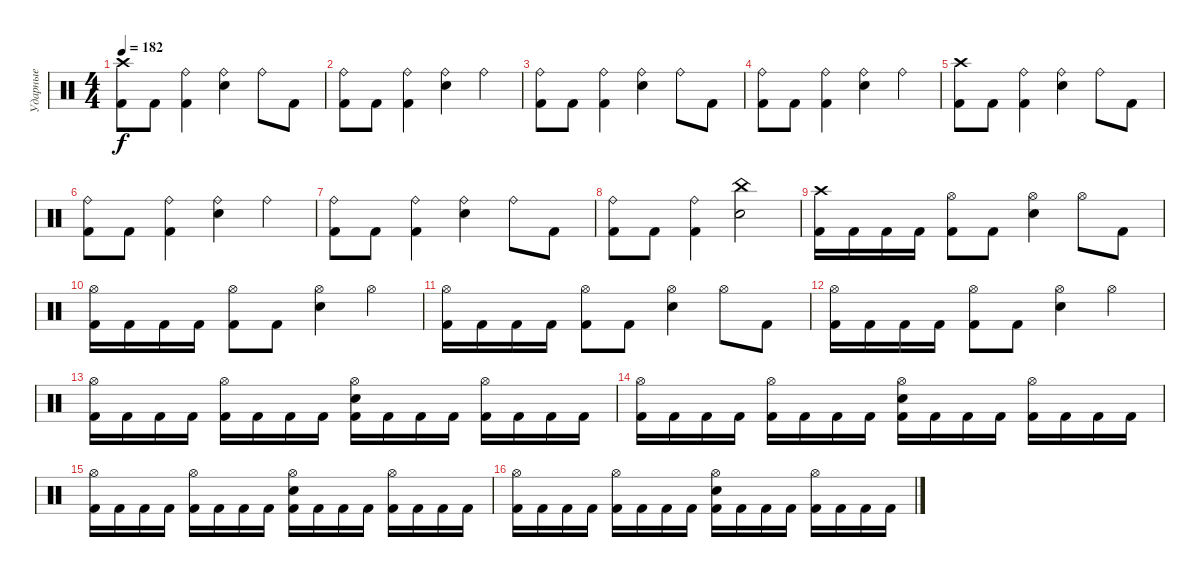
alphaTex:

\track ("Ударные" "Ударные") {instrument percussion}
\staff {score}
\articulation defaults
\ts (4 4)
\tempo 182
\clef neutral
\ks c
("Crash high (hit)" "Kick (hit) 2").8{dy f} "Kick (hit) 2".8 ("Ride (bell)" "Kick (hit) 2").4 ("Ride (bell)" "Electric Snare (hit)").4 "Ride (bell)".8 "Kick (hit) 2".8 |
("Ride (bell)" "Kick (hit) 2").8 "Kick (hit) 2".8 ("Ride (bell)" "Kick (hit) 2").4 ("Ride (bell)" "Electric Snare (hit)").4 "Ride (bell)".4 |
("Ride (bell)" "Kick (hit) 2").8 "Kick (hit) 2".8 ("Ride (bell)" "Kick (hit) 2").4 ("Ride (bell)" "Electric Snare (hit)").4 "Ride (bell)".8 "Kick (hit) 2".8 |
("Ride (bell)" "Kick (hit) 2").8 "Kick (hit) 2".8 ("Ride (bell)" "Kick (hit) 2").4 ("Ride (bell)" "Electric Snare (hit)").4 "Ride (bell)".4 |
("Crash high (hit)" "Kick (hit) 2").8 "Kick (hit) 2".8 ("Ride (bell)" "Kick (hit) 2").4 ("Ride (bell)" "Electric Snare (hit)").4 "Ride (bell)".8 "Kick (hit) 2".8 |
("Ride (bell)" "Kick (hit) 2").8 "Kick (hit) 2".8 ("Ride (bell)" "Kick (hit) 2").4 ("Ride (bell)" "Electric Snare (hit)").4 "Ride (bell)".4 |
("Ride (bell)" "Kick (hit) 2").8 "Kick (hit) 2".8 ("Ride (bell)" "Kick (hit) 2").4 ("Ride (bell)" "Electric Snare (hit)").4 "Ride (bell)".8 "Kick (hit) 2".8 |
("Ride (bell)" "Kick (hit) 2").8 "Kick (hit) 2".8 ("Ride (bell)" "Kick (hit) 2").4 ("China (hit)" "Electric Snare (hit)").2 |
("Crash high (hit)" "Kick (hit) 2").16 "Kick (hit) 2".16 "Kick (hit) 2".16 "Kick (hit) 2".16 ("Hi-Hat (open)" "Kick (hit) 2").8 "Kick (hit) 2".8 ("Hi-Hat (open)" "Electric Snare (hit)").4 "Hi-Hat (open)".8 "Kick (hit) 2".8 |
("Hi-Hat (open)" "Kick (hit) 2").16 "Kick (hit) 2".16 "Kick (hit) 2".16 "Kick (hit) 2".16 ("Hi-Hat (open)" "Kick (hit) 2").8 "Kick (hit) 2".8 ("Hi-Hat (open)" "Electric Snare (hit)").4 "Hi-Hat (open)".4 |
("Hi-Hat (open)" "Kick (hit) 2").16 "Kick (hit) 2".16 "Kick (hit) 2".16 "Kick (hit) 2".16 ("Hi-Hat (open)" "Kick (hit) 2").8 "Kick (hit) 2".8 ("Hi-Hat (open)" "Electric Snare (hit)").4 "Hi-Hat (open)".8 "Kick (hit) 2".8 |
("Hi-Hat (open)" "Kick (hit) 2").16 "Kick (hit) 2".16 "Kick (hit) 2".16 "Kick (hit) 2".16 ("Hi-Hat (open)" "Kick (hit) 2").8 "Kick (hit) 2".8 ("Hi-Hat (open)" "Electric Snare (hit)").4 "Hi-Hat (open)".4 |
("Hi-Hat (open)" "Kick (hit) 2").16 "Kick (hit) 2".16 "Kick (hit) 2".16 "Kick (hit) 2".16 ("Hi-Hat (open)" "Kick (hit) 2").16 "Kick (hit) 2".16 "Kick (hit) 2".16 "Kick (hit) 2".16 ("Hi-Hat (open)" "Electric Snare (hit)" "Kick (hit) 2").16 "Kick (hit) 2".16 "Kick (hit) 2".16 "Kick (hit) 2".16 ("Hi-Hat (open)" "Kick (hit) 2").16 "Kick (hit) 2".16 "Kick (hit) 2".16 "Kick (hit) 2".16 |
("Hi-Hat (open)" "Kick (hit) 2").16 "Kick (hit) 2".16 "Kick (hit) 2".16 "Kick (hit) 2".16 ("Hi-Hat (open)" "Kick (hit) 2").16 "Kick (hit) 2".16 "Kick (hit) 2".16 "Kick (hit) 2".16 ("Hi-Hat (open)" "Electric Snare (hit)" "Kick (hit) 2").16 "Kick (hit) 2".16 "Kick (hit) 2".16 "Kick (hit) 2".16 ("Hi-Hat (open)" "Kick (hit) 2").16 "Kick (hit) 2".16 "Kick (hit) 2".16 "Kick (hit) 2".16 |
("Hi-Hat (open)" "Kick (hit) 2").16 "Kick (hit) 2".16 "Kick (hit) 2".16 "Kick (hit) 2".16 ("Hi-Hat (open)" "Kick (hit) 2").16 "Kick (hit) 2".16 "Kick (hit) 2".16 "Kick (hit) 2".16 ("Hi-Hat (open)" "Electric Snare (hit)" "Kick (hit) 2").16 "Kick (hit) 2".16 "Kick (hit) 2".16 "Kick (hit) 2".16 ("Hi-Hat (open)" "Kick (hit) 2").16 "Kick (hit) 2".16 "Kick (hit) 2".16 "Kick (hit) 2".16 |
("Hi-Hat (open)" "Kick (hit) 2").16 "Kick (hit) 2".16 "Kick (hit) 2".16 "Kick (hit) 2".16 ("Hi-Hat (open)" "Kick (hit) 2").16 "Kick (hit) 2".16 "Kick (hit) 2".16 "Kick (hit) 2".16 ("Hi-Hat (open)" "Electric Snare (hit)" "Kick (hit) 2").16 "Kick (hit) 2".16 "Kick (hit) 2".16 "Kick (hit) 2".16 ("Hi-Hat (open)" "Kick (hit) 2").16 "Kick (hit) 2".16 "Kick (hit) 2".16 "Kick (hit) 2".16
